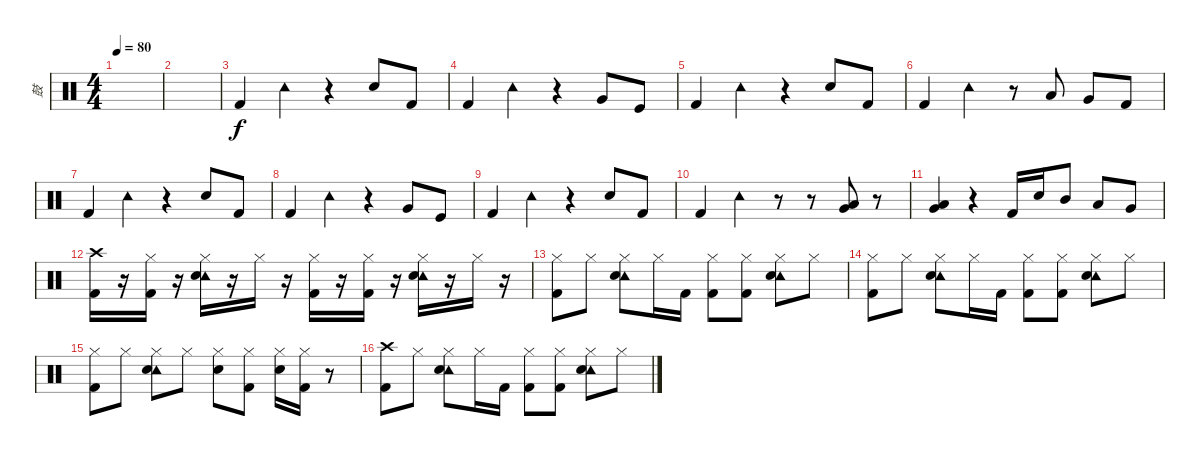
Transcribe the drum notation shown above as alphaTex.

\track ("鼓" "鼓") {instrument percussion}
\staff {score}
\articulation defaults
\ts (4 4)
\tempo 80
\clef neutral
\ks c
|
|
"Kick (hit) 2".4 "Tambourine (hit)".4 r.4 "Electric Snare (hit)".8 "Kick (hit) 2".8 |
"Kick (hit) 2".4 "Tambourine (hit)".4 r.4 "Very Low Tom (hit)".8 "Kick (hit)".8 |
"Kick (hit) 2".4 "Tambourine (hit)".4 r.4 "Electric Snare (hit)".8 "Kick (hit) 2".8 |
"Kick (hit) 2".4 "Tambourine (hit)".4 r.8 "Low Tom (hit)".8 "Very Low Tom (hit)".8 "Kick (hit) 2".8 |
"Kick (hit) 2".4 "Tambourine (hit)".4 r.4 "Electric Snare (hit)".8 "Kick (hit) 2".8 |
"Kick (hit) 2".4 "Tambourine (hit)".4 r.4 "Very Low Tom (hit)".8 "Kick (hit)".8 |
"Kick (hit) 2".4 "Tambourine (hit)".4 r.4 "Electric Snare (hit)".8 "Kick (hit) 2".8 |
"Kick (hit) 2".4 "Tambourine (hit)".4 r.8 r.8 ("Low Tom (hit)" "Very Low Tom (hit)").8 r.8 |
("Low Tom (hit)" "Very Low Tom (hit)").4 r.4 "Kick (hit) 2".16 "Electric Snare (hit)".16 "Mid Tom (hit)".8 "Low Tom (hit)".8 "Very Low Tom (hit)".8 |
("Crash high (hit)" "Kick (hit) 2").16 r.16 ("Hi-Hat (closed)" "Kick (hit) 2").16 r.16 ("Hi-Hat (closed)" "Tambourine (hit)" "Electric Snare (hit)").16 r.16 "Hi-Hat (closed)".16 r.16 ("Hi-Hat (closed)" "Kick (hit) 2").16 r.16 ("Hi-Hat (closed)" "Kick (hit) 2").16 r.16 ("Hi-Hat (closed)" "Tambourine (hit)" "Electric Snare (hit)").16 r.16 "Hi-Hat (closed)".16 r.16 |
("Hi-Hat (closed)" "Kick (hit) 2").8 "Hi-Hat (closed)".8 ("Hi-Hat (closed)" "Tambourine (hit)" "Electric Snare (hit)").8 "Hi-Hat (closed)".16 "Kick (hit) 2".16 ("Hi-Hat (closed)" "Kick (hit) 2").8 ("Hi-Hat (closed)" "Kick (hit) 2").8 ("Hi-Hat (closed)" "Tambourine (hit)" "Electric Snare (hit)").8 "Hi-Hat (closed)".8 |
("Hi-Hat (closed)" "Kick (hit) 2").8 "Hi-Hat (closed)".8 ("Hi-Hat (closed)" "Tambourine (hit)" "Electric Snare (hit)").8 "Hi-Hat (closed)".16 "Kick (hit) 2".16 ("Hi-Hat (closed)" "Kick (hit) 2").8 ("Hi-Hat (closed)" "Kick (hit) 2").8 ("Hi-Hat (closed)" "Tambourine (hit)" "Electric Snare (hit)").8 "Hi-Hat (closed)".8 |
("Hi-Hat (closed)" "Kick (hit) 2").8 "Hi-Hat (closed)".8 ("Hi-Hat (closed)" "Tambourine (hit)" "Electric Snare (hit)").8 "Hi-Hat (closed)".8 ("Hi-Hat (closed)" "Electric Snare (hit)").8 ("Hi-Hat (closed)" "Kick (hit) 2").8 ("Hi-Hat (closed)" "Electric Snare (hit)").16 ("Hi-Hat (closed)" "Kick (hit) 2").16 r.8 |
("Crash high (hit)" "Kick (hit) 2").8 "Hi-Hat (closed)".8 ("Hi-Hat (closed)" "Tambourine (hit)" "Electric Snare (hit)").8 "Hi-Hat (closed)".16 "Kick (hit) 2".16 ("Hi-Hat (closed)" "Kick (hit) 2").8 ("Hi-Hat (closed)" "Kick (hit) 2").8 ("Hi-Hat (closed)" "Tambourine (hit)" "Electric Snare (hit)").8 "Hi-Hat (closed)".8
